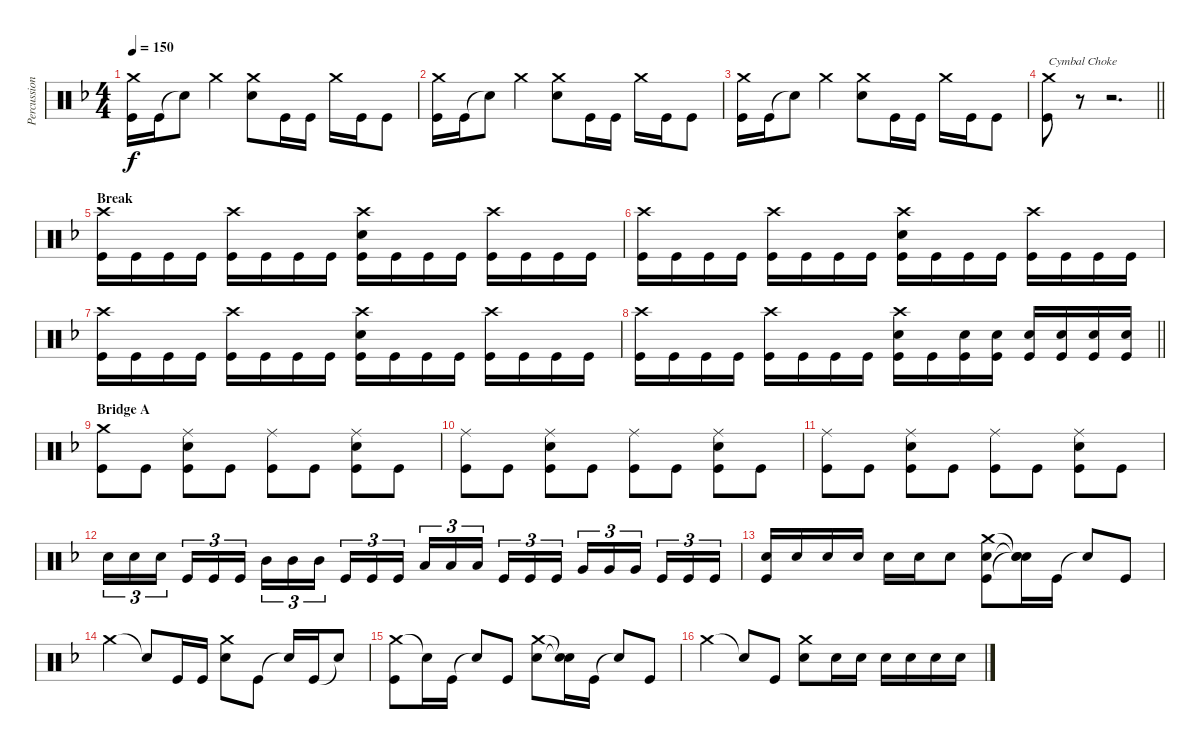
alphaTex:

\track ("Percussion" "Percussion") {instrument percussion}
\staff {score}
\articulation defaults
\ts (4 4)
\tempo 150
\clef neutral
\ks f
("Crash medium (hit)" "Kick (hit)").16{dy f} "Kick (hit)".16 "Snare (hit)"{t}.8 "Crash medium (hit)".4 ("Crash medium (hit)" "Electric Snare (hit)").8 "Kick (hit)".16 "Kick (hit)".16 "Crash medium (hit)".16 "Kick (hit)".16 "Kick (hit)".8 |
("Crash medium (hit)" "Kick (hit)").16 "Kick (hit)".16 "Snare (hit)"{t}.8 "Crash medium (hit)".4 ("Crash medium (hit)" "Electric Snare (hit)").8 "Kick (hit)".16 "Kick (hit)".16 "Crash medium (hit)".16 "Kick (hit)".16 "Kick (hit)".8 |
("Crash medium (hit)" "Kick (hit)").16 "Kick (hit)".16 "Snare (hit)"{t}.8 "Crash medium (hit)".4 ("Crash medium (hit)" "Electric Snare (hit)").8 "Kick (hit)".16 "Kick (hit)".16 "Crash medium (hit)".16 "Kick (hit)".16 "Kick (hit)".8 |
\barLineRight lightlight
("Crash medium (hit)" "Kick (hit)").8{txt "Cymbal Choke"} r.8{volume 0} r.2{d} |
\section ("" "Break")
("Crash high (hit)" "Kick (hit)").16{volume 13} "Kick (hit)".16 "Kick (hit)".16 "Kick (hit)".16 ("Crash high (hit)" "Kick (hit)").16 "Kick (hit)".16 "Kick (hit)".16 "Kick (hit)".16 ("Crash high (hit)" "Electric Snare (hit)" "Kick (hit)").16 "Kick (hit)".16 "Kick (hit)".16 "Kick (hit)".16 ("Crash high (hit)" "Kick (hit)").16 "Kick (hit)".16 "Kick (hit)".16 "Kick (hit)".16 |
("Crash high (hit)" "Kick (hit)").16 "Kick (hit)".16 "Kick (hit)".16 "Kick (hit)".16 ("Crash high (hit)" "Kick (hit)").16 "Kick (hit)".16 "Kick (hit)".16 "Kick (hit)".16 ("Crash high (hit)" "Electric Snare (hit)" "Kick (hit)").16 "Kick (hit)".16 "Kick (hit)".16 "Kick (hit)".16 ("Crash high (hit)" "Kick (hit)").16 "Kick (hit)".16 "Kick (hit)".16 "Kick (hit)".16 |
("Crash high (hit)" "Kick (hit)").16 "Kick (hit)".16 "Kick (hit)".16 "Kick (hit)".16 ("Crash high (hit)" "Kick (hit)").16 "Kick (hit)".16 "Kick (hit)".16 "Kick (hit)".16 ("Crash high (hit)" "Electric Snare (hit)" "Kick (hit)").16 "Kick (hit)".16 "Kick (hit)".16 "Kick (hit)".16 ("Crash high (hit)" "Kick (hit)").16 "Kick (hit)".16 "Kick (hit)".16 "Kick (hit)".16 |
\barLineRight lightlight
("Crash high (hit)" "Kick (hit)").16 "Kick (hit)".16 "Kick (hit)".16 "Kick (hit)".16 ("Crash high (hit)" "Kick (hit)").16 "Kick (hit)".16 "Kick (hit)".16 "Kick (hit)".16 ("Crash high (hit)" "Electric Snare (hit)" "Kick (hit)").16 "Kick (hit)".16 ("Electric Snare (hit)" "Kick (hit)").16 ("Electric Snare (hit)" "Kick (hit)").16 ("Electric Snare (hit)" "Kick (hit)").16 ("Electric Snare (hit)" "Kick (hit)").16 ("Electric Snare (hit)" "Kick (hit)").16 ("Electric Snare (hit)" "Kick (hit)").16 |
\section ("" "Bridge A")
("Crash medium (hit)" "Kick (hit)").8 "Kick (hit)".8 ("Ride (middle)" "Electric Snare (hit)" "Kick (hit)").8 "Kick (hit)".8 ("Ride (middle)" "Kick (hit)").8 "Kick (hit)".8 ("Ride (middle)" "Electric Snare (hit)" "Kick (hit)").8 "Kick (hit)".8 |
("Ride (middle)" "Kick (hit)").8 "Kick (hit)".8 ("Ride (middle)" "Electric Snare (hit)" "Kick (hit)").8 "Kick (hit)".8 ("Ride (middle)" "Kick (hit)").8 "Kick (hit)".8 ("Ride (middle)" "Electric Snare (hit)" "Kick (hit)").8 "Kick (hit)".8 |
("Ride (middle)" "Kick (hit)").8 "Kick (hit)".8 ("Ride (middle)" "Electric Snare (hit)" "Kick (hit)").8 "Kick (hit)".8 ("Ride (middle)" "Kick (hit)").8 "Kick (hit)".8 ("Ride (middle)" "Electric Snare (hit)" "Kick (hit)").8 "Kick (hit)".8 |
"Electric Snare (hit)".16{tu (3 2)} "Electric Snare (hit)".16{tu (3 2)} "Electric Snare (hit)".16{tu (3 2) beam splitsecondary} "Kick (hit)".16{tu (3 2)} "Kick (hit)".16{tu (3 2)} "Kick (hit)".16{tu (3 2)} "Mid Tom (hit)".16{tu (3 2)} "Mid Tom (hit)".16{tu (3 2)} "Mid Tom (hit)".16{tu (3 2) beam splitsecondary} "Kick (hit)".16{tu (3 2)} "Kick (hit)".16{tu (3 2)} "Kick (hit)".16{tu (3 2)} "Low Tom (hit)".16{tu (3 2)} "Low Tom (hit)".16{tu (3 2)} "Low Tom (hit)".16{tu (3 2) beam splitsecondary} "Kick (hit)".16{tu (3 2)} "Kick (hit)".16{tu (3 2)} "Kick (hit)".16{tu (3 2)} "Very Low Tom (hit)".16{tu (3 2)} "Very Low Tom (hit)".16{tu (3 2)} "Very Low Tom (hit)".16{tu (3 2) beam splitsecondary} "Kick (hit)".16{tu (3 2)} "Kick (hit)".16{tu (3 2)} "Kick (hit)".16{tu (3 2)} |
("Electric Snare (hit)" "Kick (hit)").16 "Electric Snare (hit)".16 "Electric Snare (hit)".16 "Electric Snare (hit)".16 "Electric Snare (hit)".16 "Electric Snare (hit)".16 "Electric Snare (hit)".8 ("Crash medium (hit)" "Electric Snare (hit)" "Kick (hit)").8 ("Snare (hit)"{t} "Snare (hit)"{t} "Snare (hit)"{t}).16 "Kick (hit)".16 "Snare (hit)"{t}.8 "Kick (hit)".8 |
"Crash medium (hit)".4 "Snare (hit)"{t}.8 "Kick (hit)".16 "Kick (hit)".16 ("Crash medium (hit)" "Electric Snare (hit)").8 "Kick (hit)".8 "Snare (hit)"{t}.16 "Kick (hit)".16 "Snare (hit)"{t}.8 |
("Crash medium (hit)" "Kick (hit)").8 "Snare (hit)"{t}.16 "Kick (hit)".16 "Snare (hit)"{t}.8 "Kick (hit)".8 ("Crash medium (hit)" "Electric Snare (hit)").8 ("Snare (hit)"{t} "Snare (hit)"{t}).16 "Kick (hit)".16 "Snare (hit)"{t}.8 "Kick (hit)".8 |
"Crash medium (hit)".4 "Snare (hit)"{t}.8 "Kick (hit)".8 ("Crash medium (hit)" "Electric Snare (hit)").8 "Electric Snare (hit)".16 "Electric Snare (hit)".16 "Electric Snare (hit)".16 "Electric Snare (hit)".16 "Electric Snare (hit)".16 "Electric Snare (hit)".16
